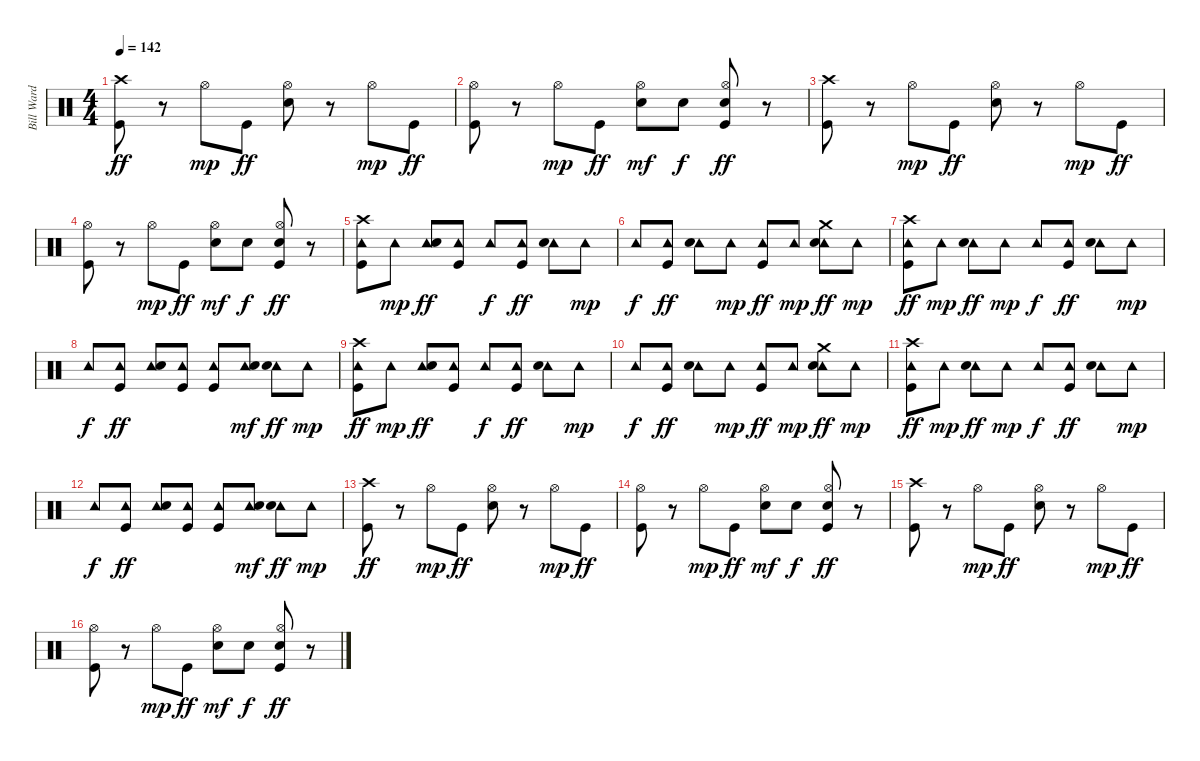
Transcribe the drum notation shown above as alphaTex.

\track ("Bill Ward" "Bill Ward") {instrument percussion}
\staff {score}
\articulation defaults
\ts (4 4)
\tempo 142
\clef neutral
\ks c
("Crash high (hit)" "Kick (hit)").8{dy ff} r.8 "Hi-Hat (open)".8{dy mp} "Kick (hit)".8{dy ff} ("Hi-Hat (open)" "Snare (hit) 2").8 r.8 "Hi-Hat (open)".8{dy mp} "Kick (hit)".8{dy ff} |
("Hi-Hat (open)" "Kick (hit)").8 r.8 "Hi-Hat (open)".8{dy mp} "Kick (hit)".8{dy ff} ("Hi-Hat (open)" "Snare (hit) 2").8{dy mf} "Snare (hit) 2".8{dy f} ("Hi-Hat (open)" "Snare (hit) 2" "Kick (hit)").8{dy ff} r.8 |
("Crash high (hit)" "Kick (hit)").8 r.8 "Hi-Hat (open)".8{dy mp} "Kick (hit)".8{dy ff} ("Hi-Hat (open)" "Snare (hit) 2").8 r.8 "Hi-Hat (open)".8{dy mp} "Kick (hit)".8{dy ff} |
("Hi-Hat (open)" "Kick (hit)").8 r.8 "Hi-Hat (open)".8{dy mp} "Kick (hit)".8{dy ff} ("Hi-Hat (open)" "Snare (hit) 2").8{dy mf} "Snare (hit) 2".8{dy f} ("Hi-Hat (open)" "Snare (hit) 2" "Kick (hit)").8{dy ff} r.8 |
("Crash high (hit)" "Tambourine (hit)" "Kick (hit)").8 "Tambourine (hit)".8{dy mp} ("Tambourine (hit)" "Snare (hit) 2").8{dy ff} ("Tambourine (hit)" "Kick (hit)").8 "Tambourine (hit)".8{dy f} ("Tambourine (hit)" "Kick (hit)").8{dy ff} ("Tambourine (hit)" "Snare (hit) 2").8 "Tambourine (hit)".8{dy mp} |
"Tambourine (hit)".8{dy f} ("Tambourine (hit)" "Kick (hit)").8{dy ff} ("Tambourine (hit)" "Snare (hit) 2").8 "Tambourine (hit)".8{dy mp} ("Tambourine (hit)" "Kick (hit)").8{dy ff} "Tambourine (hit)".8{dy mp} ("Crash medium (hit)" "Tambourine (hit)" "Snare (hit) 2").8{dy ff} "Tambourine (hit)".8{dy mp} |
("Crash high (hit)" "Tambourine (hit)" "Kick (hit)").8{dy ff} "Tambourine (hit)".8{dy mp} ("Tambourine (hit)" "Snare (hit) 2").8{dy ff} "Tambourine (hit)".8{dy mp} "Tambourine (hit)".8{dy f} ("Tambourine (hit)" "Kick (hit)").8{dy ff} ("Tambourine (hit)" "Snare (hit) 2").8 "Tambourine (hit)".8{dy mp} |
"Tambourine (hit)".8{dy f} ("Tambourine (hit)" "Kick (hit)").8{dy ff} ("Tambourine (hit)" "Snare (hit) 2").8 ("Tambourine (hit)" "Kick (hit)").8 ("Tambourine (hit)" "Kick (hit)").8 ("Tambourine (hit)" "Snare (hit) 2").8{dy mf} ("Tambourine (hit)" "Snare (hit) 2").8{dy ff} "Tambourine (hit)".8{dy mp} |
("Crash high (hit)" "Tambourine (hit)" "Kick (hit)").8{dy ff} "Tambourine (hit)".8{dy mp} ("Tambourine (hit)" "Snare (hit) 2").8{dy ff} ("Tambourine (hit)" "Kick (hit)").8 "Tambourine (hit)".8{dy f} ("Tambourine (hit)" "Kick (hit)").8{dy ff} ("Tambourine (hit)" "Snare (hit) 2").8 "Tambourine (hit)".8{dy mp} |
"Tambourine (hit)".8{dy f} ("Tambourine (hit)" "Kick (hit)").8{dy ff} ("Tambourine (hit)" "Snare (hit) 2").8 "Tambourine (hit)".8{dy mp} ("Tambourine (hit)" "Kick (hit)").8{dy ff} "Tambourine (hit)".8{dy mp} ("Crash medium (hit)" "Tambourine (hit)" "Snare (hit) 2").8{dy ff} "Tambourine (hit)".8{dy mp} |
("Crash high (hit)" "Tambourine (hit)" "Kick (hit)").8{dy ff} "Tambourine (hit)".8{dy mp} ("Tambourine (hit)" "Snare (hit) 2").8{dy ff} "Tambourine (hit)".8{dy mp} "Tambourine (hit)".8{dy f} ("Tambourine (hit)" "Kick (hit)").8{dy ff} ("Tambourine (hit)" "Snare (hit) 2").8 "Tambourine (hit)".8{dy mp} |
"Tambourine (hit)".8{dy f} ("Tambourine (hit)" "Kick (hit)").8{dy ff} ("Tambourine (hit)" "Snare (hit) 2").8 ("Tambourine (hit)" "Kick (hit)").8 ("Tambourine (hit)" "Kick (hit)").8 ("Tambourine (hit)" "Snare (hit) 2").8{dy mf} ("Tambourine (hit)" "Snare (hit) 2").8{dy ff} "Tambourine (hit)".8{dy mp} |
("Crash high (hit)" "Kick (hit)").8{dy ff} r.8 "Hi-Hat (open)".8{dy mp} "Kick (hit)".8{dy ff} ("Hi-Hat (open)" "Snare (hit) 2").8 r.8 "Hi-Hat (open)".8{dy mp} "Kick (hit)".8{dy ff} |
("Hi-Hat (open)" "Kick (hit)").8 r.8 "Hi-Hat (open)".8{dy mp} "Kick (hit)".8{dy ff} ("Hi-Hat (open)" "Snare (hit) 2").8{dy mf} "Snare (hit) 2".8{dy f} ("Hi-Hat (open)" "Snare (hit) 2" "Kick (hit)").8{dy ff} r.8 |
("Crash high (hit)" "Kick (hit)").8 r.8 "Hi-Hat (open)".8{dy mp} "Kick (hit)".8{dy ff} ("Hi-Hat (open)" "Snare (hit) 2").8 r.8 "Hi-Hat (open)".8{dy mp} "Kick (hit)".8{dy ff} |
("Hi-Hat (open)" "Kick (hit)").8 r.8 "Hi-Hat (open)".8{dy mp} "Kick (hit)".8{dy ff} ("Hi-Hat (open)" "Snare (hit) 2").8{dy mf} "Snare (hit) 2".8{dy f} ("Hi-Hat (open)" "Snare (hit) 2" "Kick (hit)").8{dy ff} r.8
